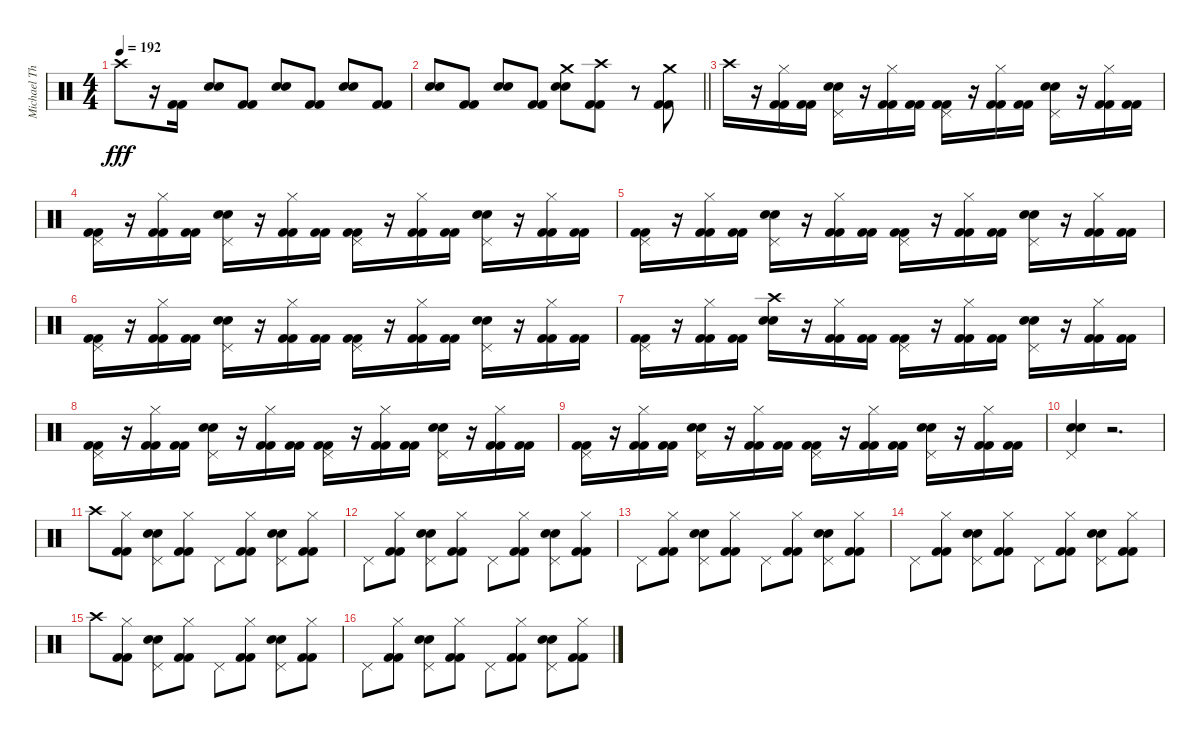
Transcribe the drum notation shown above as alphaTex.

\track ("Michael Thomas" "Michael Th") {instrument percussion}
\staff {score}
\articulation defaults
\ts (4 4)
\tempo 192
\clef neutral
\ks c "Crash high (hit)".8{dy fff}
r.16 ("Kick (hit) 2" "Kick (hit) 2").16 ("Snare (hit) 2" "Electric Snare (hit)").8 ("Kick (hit) 2" "Kick (hit) 2").8 ("Snare (hit) 2" "Electric Snare (hit)").8 ("Kick (hit) 2" "Kick (hit) 2").8 ("Snare (hit) 2" "Electric Snare (hit)").8 ("Kick (hit) 2" "Kick (hit) 2").8 |
\barLineRight lightlight
("Snare (hit) 2" "Electric Snare (hit)").8 ("Kick (hit) 2" "Kick (hit) 2").8 ("Snare (hit) 2" "Electric Snare (hit)").8 ("Kick (hit) 2" "Kick (hit) 2").8 ("Crash medium (hit)" "Snare (hit) 2" "Electric Snare (hit)").8 ("Crash high (hit)" "Kick (hit) 2" "Kick (hit) 2").8 r.8 ("Crash medium (hit)" "Kick (hit) 2" "Kick (hit) 2").8 |
"Crash high (hit)".16 r.16 ("Hi-Hat (closed)" "Kick (hit) 2" "Kick (hit) 2").16 ("Kick (hit) 2" "Kick (hit) 2").16 ("Pedal Hi-Hat (hit)" "Snare (hit) 2" "Electric Snare (hit)").16 r.16 ("Hi-Hat (closed)" "Kick (hit) 2" "Kick (hit) 2").16 ("Kick (hit) 2" "Kick (hit) 2").16 ("Pedal Hi-Hat (hit)" "Kick (hit) 2" "Kick (hit) 2").16 r.16 ("Hi-Hat (closed)" "Kick (hit) 2" "Kick (hit) 2").16 ("Kick (hit) 2" "Kick (hit) 2").16 ("Pedal Hi-Hat (hit)" "Snare (hit) 2" "Electric Snare (hit)").16 r.16 ("Hi-Hat (closed)" "Kick (hit) 2" "Kick (hit) 2").16 ("Kick (hit) 2" "Kick (hit) 2").16 |
("Pedal Hi-Hat (hit)" "Kick (hit) 2" "Kick (hit) 2").16 r.16 ("Hi-Hat (closed)" "Kick (hit) 2" "Kick (hit) 2").16 ("Kick (hit) 2" "Kick (hit) 2").16 ("Pedal Hi-Hat (hit)" "Snare (hit) 2" "Electric Snare (hit)").16 r.16 ("Hi-Hat (closed)" "Kick (hit) 2" "Kick (hit) 2").16 ("Kick (hit) 2" "Kick (hit) 2").16 ("Pedal Hi-Hat (hit)" "Kick (hit) 2" "Kick (hit) 2").16 r.16 ("Hi-Hat (closed)" "Kick (hit) 2" "Kick (hit) 2").16 ("Kick (hit) 2" "Kick (hit) 2").16 ("Pedal Hi-Hat (hit)" "Snare (hit) 2" "Electric Snare (hit)").16 r.16 ("Hi-Hat (closed)" "Kick (hit) 2" "Kick (hit) 2").16 ("Kick (hit) 2" "Kick (hit) 2").16 |
("Pedal Hi-Hat (hit)" "Kick (hit) 2" "Kick (hit) 2").16 r.16 ("Hi-Hat (closed)" "Kick (hit) 2" "Kick (hit) 2").16 ("Kick (hit) 2" "Kick (hit) 2").16 ("Pedal Hi-Hat (hit)" "Snare (hit) 2" "Electric Snare (hit)").16 r.16 ("Hi-Hat (closed)" "Kick (hit) 2" "Kick (hit) 2").16 ("Kick (hit) 2" "Kick (hit) 2").16 ("Pedal Hi-Hat (hit)" "Kick (hit) 2" "Kick (hit) 2").16 r.16 ("Hi-Hat (closed)" "Kick (hit) 2" "Kick (hit) 2").16 ("Kick (hit) 2" "Kick (hit) 2").16 ("Pedal Hi-Hat (hit)" "Snare (hit) 2" "Electric Snare (hit)").16 r.16 ("Hi-Hat (closed)" "Kick (hit) 2" "Kick (hit) 2").16 ("Kick (hit) 2" "Kick (hit) 2").16 |
("Pedal Hi-Hat (hit)" "Kick (hit) 2" "Kick (hit) 2").16 r.16 ("Hi-Hat (closed)" "Kick (hit) 2" "Kick (hit) 2").16 ("Kick (hit) 2" "Kick (hit) 2").16 ("Pedal Hi-Hat (hit)" "Snare (hit) 2" "Electric Snare (hit)").16 r.16 ("Hi-Hat (closed)" "Kick (hit) 2" "Kick (hit) 2").16 ("Kick (hit) 2" "Kick (hit) 2").16 ("Pedal Hi-Hat (hit)" "Kick (hit) 2" "Kick (hit) 2").16 r.16 ("Hi-Hat (closed)" "Kick (hit) 2" "Kick (hit) 2").16 ("Kick (hit) 2" "Kick (hit) 2").16 ("Pedal Hi-Hat (hit)" "Snare (hit) 2" "Electric Snare (hit)").16 r.16 ("Hi-Hat (closed)" "Kick (hit) 2" "Kick (hit) 2").16 ("Kick (hit) 2" "Kick (hit) 2").16 |
("Pedal Hi-Hat (hit)" "Kick (hit) 2" "Kick (hit) 2").16 r.16 ("Hi-Hat (closed)" "Kick (hit) 2" "Kick (hit) 2").16 ("Kick (hit) 2" "Kick (hit) 2").16 ("Crash high (hit)" "Snare (hit) 2" "Electric Snare (hit)").16 r.16 ("Hi-Hat (closed)" "Kick (hit) 2" "Kick (hit) 2").16 ("Kick (hit) 2" "Kick (hit) 2").16 ("Pedal Hi-Hat (hit)" "Kick (hit) 2" "Kick (hit) 2").16 r.16 ("Hi-Hat (closed)" "Kick (hit) 2" "Kick (hit) 2").16 ("Kick (hit) 2" "Kick (hit) 2").16 ("Pedal Hi-Hat (hit)" "Snare (hit) 2" "Electric Snare (hit)").16 r.16 ("Hi-Hat (closed)" "Kick (hit) 2" "Kick (hit) 2").16 ("Kick (hit) 2" "Kick (hit) 2").16 |
("Pedal Hi-Hat (hit)" "Kick (hit) 2" "Kick (hit) 2").16 r.16 ("Hi-Hat (closed)" "Kick (hit) 2" "Kick (hit) 2").16 ("Kick (hit) 2" "Kick (hit) 2").16 ("Pedal Hi-Hat (hit)" "Snare (hit) 2" "Electric Snare (hit)").16 r.16 ("Hi-Hat (closed)" "Kick (hit) 2" "Kick (hit) 2").16 ("Kick (hit) 2" "Kick (hit) 2").16 ("Pedal Hi-Hat (hit)" "Kick (hit) 2" "Kick (hit) 2").16 r.16 ("Hi-Hat (closed)" "Kick (hit) 2" "Kick (hit) 2").16 ("Kick (hit) 2" "Kick (hit) 2").16 ("Pedal Hi-Hat (hit)" "Snare (hit) 2" "Electric Snare (hit)").16 r.16 ("Hi-Hat (closed)" "Kick (hit) 2" "Kick (hit) 2").16 ("Kick (hit) 2" "Kick (hit) 2").16 |
("Pedal Hi-Hat (hit)" "Kick (hit) 2" "Kick (hit) 2").16 r.16 ("Hi-Hat (closed)" "Kick (hit) 2" "Kick (hit) 2").16 ("Kick (hit) 2" "Kick (hit) 2").16 ("Pedal Hi-Hat (hit)" "Snare (hit) 2" "Electric Snare (hit)").16 r.16 ("Hi-Hat (closed)" "Kick (hit) 2" "Kick (hit) 2").16 ("Kick (hit) 2" "Kick (hit) 2").16 ("Pedal Hi-Hat (hit)" "Kick (hit) 2" "Kick (hit) 2").16 r.16 ("Hi-Hat (closed)" "Kick (hit) 2" "Kick (hit) 2").16 ("Kick (hit) 2" "Kick (hit) 2").16 ("Pedal Hi-Hat (hit)" "Snare (hit) 2" "Electric Snare (hit)").16 r.16 ("Hi-Hat (closed)" "Kick (hit) 2" "Kick (hit) 2").16 ("Kick (hit) 2" "Kick (hit) 2").16 |
("Pedal Hi-Hat (hit)" "Snare (hit) 2" "Electric Snare (hit)").4 r.2{d} |
"Crash high (hit)".8 ("Hi-Hat (closed)" "Kick (hit) 2" "Kick (hit) 2").8 ("Pedal Hi-Hat (hit)" "Snare (hit) 2" "Electric Snare (hit)").8 ("Hi-Hat (closed)" "Kick (hit) 2" "Kick (hit) 2").8 "Pedal Hi-Hat (hit)".8 ("Hi-Hat (closed)" "Kick (hit) 2" "Kick (hit) 2").8 ("Pedal Hi-Hat (hit)" "Snare (hit) 2" "Electric Snare (hit)").8 ("Hi-Hat (closed)" "Kick (hit) 2" "Kick (hit) 2").8 |
"Pedal Hi-Hat (hit)".8 ("Hi-Hat (closed)" "Kick (hit) 2" "Kick (hit) 2").8 ("Pedal Hi-Hat (hit)" "Snare (hit) 2" "Electric Snare (hit)").8 ("Hi-Hat (closed)" "Kick (hit) 2" "Kick (hit) 2").8 "Pedal Hi-Hat (hit)".8 ("Hi-Hat (closed)" "Kick (hit) 2" "Kick (hit) 2").8 ("Pedal Hi-Hat (hit)" "Snare (hit) 2" "Electric Snare (hit)").8 ("Hi-Hat (closed)" "Kick (hit) 2" "Kick (hit) 2").8 |
"Pedal Hi-Hat (hit)".8 ("Hi-Hat (closed)" "Kick (hit) 2" "Kick (hit) 2").8 ("Pedal Hi-Hat (hit)" "Snare (hit) 2" "Electric Snare (hit)").8 ("Hi-Hat (closed)" "Kick (hit) 2" "Kick (hit) 2").8 "Pedal Hi-Hat (hit)".8 ("Hi-Hat (closed)" "Kick (hit) 2" "Kick (hit) 2").8 ("Pedal Hi-Hat (hit)" "Snare (hit) 2" "Electric Snare (hit)").8 ("Hi-Hat (closed)" "Kick (hit) 2" "Kick (hit) 2").8 |
"Pedal Hi-Hat (hit)".8 ("Hi-Hat (closed)" "Kick (hit) 2" "Kick (hit) 2").8 ("Pedal Hi-Hat (hit)" "Snare (hit) 2" "Electric Snare (hit)").8 ("Hi-Hat (closed)" "Kick (hit) 2" "Kick (hit) 2").8 "Pedal Hi-Hat (hit)".8 ("Hi-Hat (closed)" "Kick (hit) 2" "Kick (hit) 2").8 ("Pedal Hi-Hat (hit)" "Snare (hit) 2" "Electric Snare (hit)").8 ("Hi-Hat (closed)" "Kick (hit) 2" "Kick (hit) 2").8 |
"Crash high (hit)".8 ("Hi-Hat (closed)" "Kick (hit) 2" "Kick (hit) 2").8 ("Pedal Hi-Hat (hit)" "Snare (hit) 2" "Electric Snare (hit)").8 ("Hi-Hat (closed)" "Kick (hit) 2" "Kick (hit) 2").8 "Pedal Hi-Hat (hit)".8 ("Hi-Hat (closed)" "Kick (hit) 2" "Kick (hit) 2").8 ("Pedal Hi-Hat (hit)" "Snare (hit) 2" "Electric Snare (hit)").8 ("Hi-Hat (closed)" "Kick (hit) 2" "Kick (hit) 2").8 |
"Pedal Hi-Hat (hit)".8 ("Hi-Hat (closed)" "Kick (hit) 2" "Kick (hit) 2").8 ("Pedal Hi-Hat (hit)" "Snare (hit) 2" "Electric Snare (hit)").8 ("Hi-Hat (closed)" "Kick (hit) 2" "Kick (hit) 2").8 "Pedal Hi-Hat (hit)".8 ("Hi-Hat (closed)" "Kick (hit) 2" "Kick (hit) 2").8 ("Pedal Hi-Hat (hit)" "Snare (hit) 2" "Electric Snare (hit)").8 ("Hi-Hat (closed)" "Kick (hit) 2" "Kick (hit) 2").8
